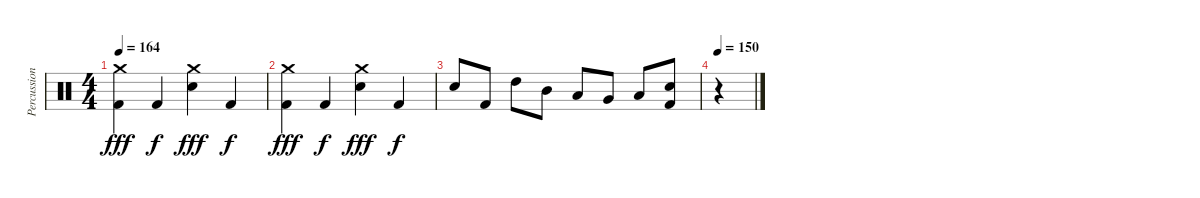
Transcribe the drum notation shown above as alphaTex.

\track ("Percussion" "Percussion") {instrument percussion}
\staff {score}
\articulation defaults
\ts (4 4)
\tempo 164
\clef neutral
\ks c
("Crash medium (hit)" "Kick (hit) 2").4{dy fff} "Kick (hit) 2".4{dy f} ("Crash medium (hit)" "Electric Snare (hit)").4{dy fff} "Kick (hit) 2".4{dy f} |
("Crash medium (hit)" "Kick (hit) 2").4{dy fff} "Kick (hit) 2".4{dy f} ("Crash medium (hit)" "Electric Snare (hit)").4{dy fff} "Kick (hit) 2".4{dy f} |
"Electric Snare (hit)".8 "Kick (hit) 2".8 "High Tom (hit)".8 "Mid Tom (hit)".8 "Low Tom (hit)".8 "Very Low Tom (hit)".8 "Low Floor Tom (hit)".8 ("Electric Snare (hit)" "Kick (hit) 2").8 |
\tempo 150
r.4
